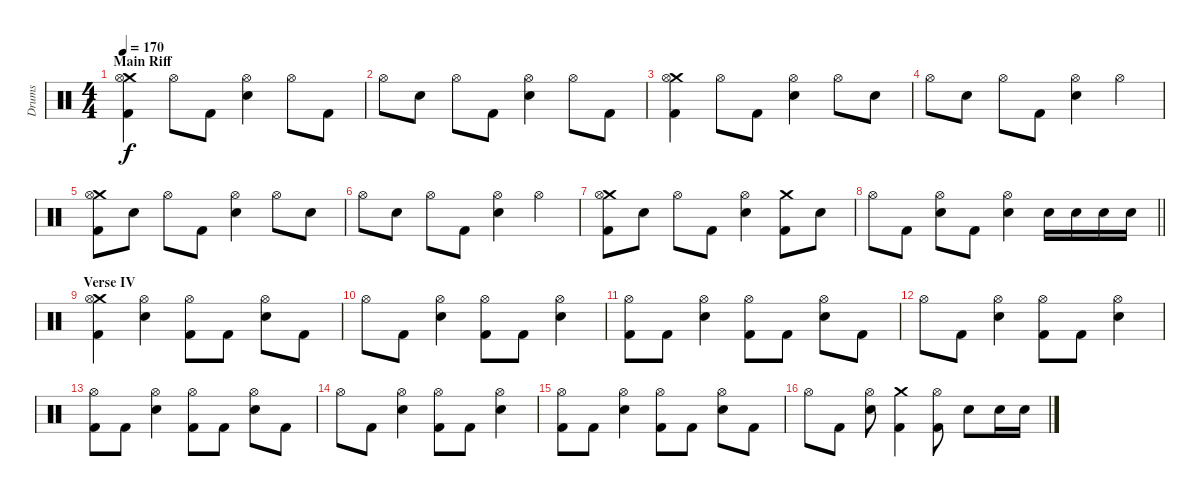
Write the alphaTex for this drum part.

\track ("Drums" "Drums") {instrument percussion}
\staff {score}
\articulation defaults
\ts (4 4)
\section ("" "Main Riff")
\tempo 170
\clef neutral
\ks c
("Crash medium (hit)" "Hi-Hat (open)" "Kick (hit) 2").4{dy f} "Hi-Hat (open)".8 "Kick (hit) 2".8 ("Hi-Hat (open)" "Electric Snare (hit)").4 "Hi-Hat (open)".8 "Kick (hit) 2".8 |
"Hi-Hat (open)".8 "Electric Snare (hit)".8 "Hi-Hat (open)".8 "Kick (hit) 2".8 ("Hi-Hat (open)" "Electric Snare (hit)").4 "Hi-Hat (open)".8 "Kick (hit) 2".8 |
("Crash medium (hit)" "Hi-Hat (open)" "Kick (hit) 2").4 "Hi-Hat (open)".8 "Kick (hit) 2".8 ("Hi-Hat (open)" "Electric Snare (hit)").4 "Hi-Hat (open)".8 "Electric Snare (hit)".8 |
"Hi-Hat (open)".8 "Electric Snare (hit)".8 "Hi-Hat (open)".8 "Kick (hit) 2".8 ("Hi-Hat (open)" "Electric Snare (hit)").4 "Hi-Hat (open)".4 |
("Crash medium (hit)" "Hi-Hat (open)" "Kick (hit) 2").8 "Electric Snare (hit)".8 "Hi-Hat (open)".8 "Kick (hit) 2".8 ("Hi-Hat (open)" "Electric Snare (hit)").4 "Hi-Hat (open)".8 "Electric Snare (hit)".8 |
"Hi-Hat (open)".8 "Electric Snare (hit)".8 "Hi-Hat (open)".8 "Kick (hit) 2".8 ("Hi-Hat (open)" "Electric Snare (hit)").4 "Hi-Hat (open)".4 |
("Crash medium (hit)" "Hi-Hat (open)" "Kick (hit) 2").8 "Electric Snare (hit)".8 "Hi-Hat (open)".8 "Kick (hit) 2".8 ("Hi-Hat (open)" "Electric Snare (hit)").4 ("Crash medium (hit)" "Kick (hit) 2").8 "Electric Snare (hit)".8 |
\barLineRight lightlight "Hi-Hat (open)".8 "Kick (hit) 2".8
("Hi-Hat (open)" "Electric Snare (hit)").8 "Kick (hit) 2".8 ("Hi-Hat (open)" "Electric Snare (hit)").4 "Electric Snare (hit)".16 "Electric Snare (hit)".16 "Electric Snare (hit)".16 "Electric Snare (hit)".16 |
\section ("" "Verse IV")
("Crash medium (hit)" "Hi-Hat (open)" "Kick (hit) 2").4 ("Hi-Hat (open)" "Electric Snare (hit)").4 ("Hi-Hat (open)" "Kick (hit) 2").8 "Kick (hit) 2".8 ("Hi-Hat (open)" "Electric Snare (hit)").8 "Kick (hit) 2".8 |
"Hi-Hat (open)".8 "Kick (hit) 2".8 ("Hi-Hat (open)" "Electric Snare (hit)").4 ("Hi-Hat (open)" "Kick (hit) 2").8 "Kick (hit) 2".8 ("Hi-Hat (open)" "Electric Snare (hit)").4 |
("Hi-Hat (open)" "Kick (hit) 2").8 "Kick (hit) 2".8 ("Hi-Hat (open)" "Electric Snare (hit)").4 ("Hi-Hat (open)" "Kick (hit) 2").8 "Kick (hit) 2".8 ("Hi-Hat (open)" "Electric Snare (hit)").8 "Kick (hit) 2".8 |
"Hi-Hat (open)".8 "Kick (hit) 2".8 ("Hi-Hat (open)" "Electric Snare (hit)").4 ("Hi-Hat (open)" "Kick (hit) 2").8 "Kick (hit) 2".8 ("Hi-Hat (open)" "Electric Snare (hit)").4 |
("Hi-Hat (open)" "Kick (hit) 2").8 "Kick (hit) 2".8 ("Hi-Hat (open)" "Electric Snare (hit)").4 ("Hi-Hat (open)" "Kick (hit) 2").8 "Kick (hit) 2".8 ("Hi-Hat (open)" "Electric Snare (hit)").8 "Kick (hit) 2".8 |
"Hi-Hat (open)".8 "Kick (hit) 2".8 ("Hi-Hat (open)" "Electric Snare (hit)").4 ("Hi-Hat (open)" "Kick (hit) 2").8 "Kick (hit) 2".8 ("Hi-Hat (open)" "Electric Snare (hit)").4 |
("Hi-Hat (open)" "Kick (hit) 2").8 "Kick (hit) 2".8 ("Hi-Hat (open)" "Electric Snare (hit)").4 ("Hi-Hat (open)" "Kick (hit) 2").8 "Kick (hit) 2".8 ("Hi-Hat (open)" "Electric Snare (hit)").8 "Kick (hit) 2".8 |
"Hi-Hat (open)".8 "Kick (hit) 2".8 ("Hi-Hat (open)" "Electric Snare (hit)").8 ("Crash medium (hit)" "Kick (hit) 2").4 ("Hi-Hat (open)" "Kick (hit) 2").8 "Electric Snare (hit)".8 "Electric Snare (hit)".16 "Electric Snare (hit)".16
